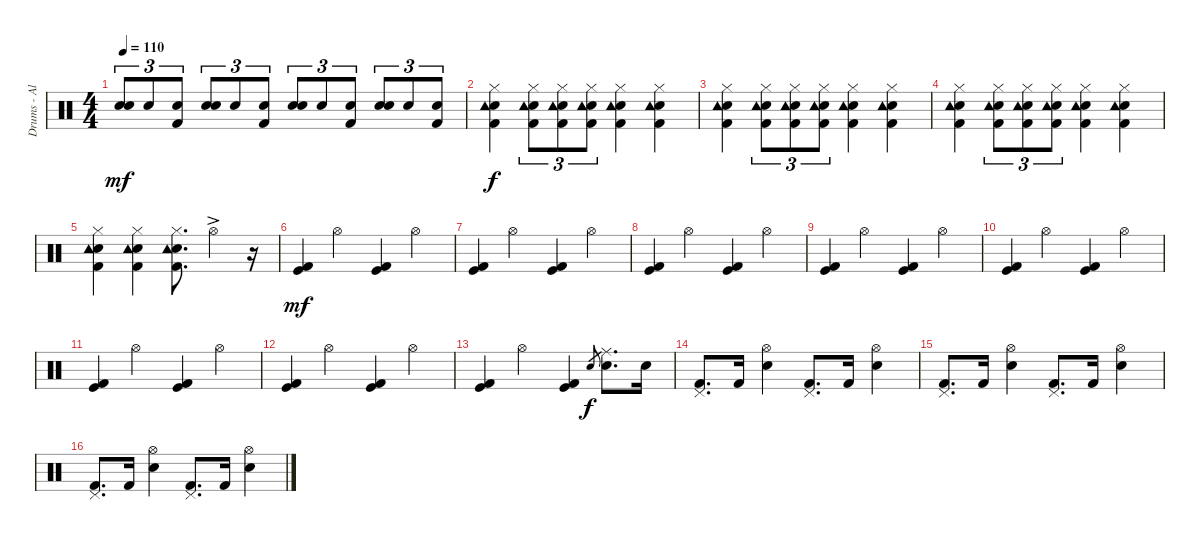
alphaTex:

\track ("Drums - Alan White" "Drums - Al") {instrument percussion}
\staff {score}
\articulation defaults
\ts (4 4)
\tempo 110
\clef neutral
\ks c
("Electric Snare (hit)" "Snare (hit) 2").8{tu (3 2) dy mf} "Snare (hit) 2".8{tu (3 2)} ("Snare (hit) 2" "Kick (hit) 2").8{tu (3 2)} ("Electric Snare (hit)" "Snare (hit) 2").8{tu (3 2)} "Snare (hit) 2".8{tu (3 2)} ("Snare (hit) 2" "Kick (hit) 2").8{tu (3 2)} ("Electric Snare (hit)" "Snare (hit) 2").8{tu (3 2)} "Snare (hit) 2".8{tu (3 2)} ("Snare (hit) 2" "Kick (hit) 2").8{tu (3 2)} ("Electric Snare (hit)" "Snare (hit) 2").8{tu (3 2)} "Snare (hit) 2".8{tu (3 2)} ("Snare (hit) 2" "Kick (hit) 2").8{tu (3 2)} |
("Snare (hit) 2" "Tambourine (hit)" "Hi-Hat (closed)" "Kick (hit) 2").4{dy f} ("Snare (hit) 2" "Tambourine (hit)" "Hi-Hat (closed)" "Kick (hit) 2").8{tu (3 2)} ("Snare (hit) 2" "Tambourine (hit)" "Hi-Hat (closed)" "Kick (hit) 2").8{tu (3 2)} ("Snare (hit) 2" "Tambourine (hit)" "Hi-Hat (closed)" "Kick (hit) 2").8{tu (3 2)} ("Snare (hit) 2" "Tambourine (hit)" "Hi-Hat (closed)" "Kick (hit) 2").4 ("Snare (hit) 2" "Tambourine (hit)" "Hi-Hat (closed)" "Kick (hit) 2").4 |
("Snare (hit) 2" "Tambourine (hit)" "Hi-Hat (closed)" "Kick (hit) 2").4 ("Snare (hit) 2" "Tambourine (hit)" "Hi-Hat (closed)" "Kick (hit) 2").8{tu (3 2)} ("Snare (hit) 2" "Tambourine (hit)" "Hi-Hat (closed)" "Kick (hit) 2").8{tu (3 2)} ("Snare (hit) 2" "Tambourine (hit)" "Hi-Hat (closed)" "Kick (hit) 2").8{tu (3 2)} ("Snare (hit) 2" "Tambourine (hit)" "Hi-Hat (closed)" "Kick (hit) 2").4 ("Snare (hit) 2" "Tambourine (hit)" "Hi-Hat (closed)" "Kick (hit) 2").4 |
("Snare (hit) 2" "Tambourine (hit)" "Hi-Hat (closed)" "Kick (hit) 2").4 ("Snare (hit) 2" "Tambourine (hit)" "Hi-Hat (closed)" "Kick (hit) 2").8{tu (3 2)} ("Snare (hit) 2" "Tambourine (hit)" "Hi-Hat (closed)" "Kick (hit) 2").8{tu (3 2)} ("Snare (hit) 2" "Tambourine (hit)" "Hi-Hat (closed)" "Kick (hit) 2").8{tu (3 2)} ("Snare (hit) 2" "Tambourine (hit)" "Hi-Hat (closed)" "Kick (hit) 2").4 ("Snare (hit) 2" "Tambourine (hit)" "Hi-Hat (closed)" "Kick (hit) 2").4 |
("Snare (hit) 2" "Tambourine (hit)" "Hi-Hat (closed)" "Kick (hit) 2").4 ("Snare (hit) 2" "Tambourine (hit)" "Hi-Hat (closed)" "Kick (hit) 2").4 ("Snare (hit) 2" "Tambourine (hit)" "Hi-Hat (closed)" "Kick (hit) 2").8{d} "Hi-Hat (open)"{ac}.4 r.16 |
("Kick (hit)" "Kick (hit) 2").4{dy mf} "Hi-Hat (open)".4 ("Kick (hit)" "Kick (hit) 2").4 "Hi-Hat (open)".4 |
("Kick (hit)" "Kick (hit) 2").4 "Hi-Hat (open)".4 ("Kick (hit)" "Kick (hit) 2").4 "Hi-Hat (open)".4 |
("Kick (hit)" "Kick (hit) 2").4 "Hi-Hat (open)".4 ("Kick (hit)" "Kick (hit) 2").4 "Hi-Hat (open)".4 |
("Kick (hit)" "Kick (hit) 2").4 "Hi-Hat (open)".4 ("Kick (hit)" "Kick (hit) 2").4 "Hi-Hat (open)".4 |
("Kick (hit)" "Kick (hit) 2").4 "Hi-Hat (open)".4 ("Kick (hit)" "Kick (hit) 2").4 "Hi-Hat (open)".4 |
("Kick (hit)" "Kick (hit) 2").4 "Hi-Hat (open)".4 ("Kick (hit)" "Kick (hit) 2").4 "Hi-Hat (open)".4 |
("Kick (hit)" "Kick (hit) 2").4 "Hi-Hat (open)".4 ("Kick (hit)" "Kick (hit) 2").4 "Hi-Hat (open)".4 |
("Kick (hit)" "Kick (hit) 2").4 "Hi-Hat (open)".4 ("Kick (hit)" "Kick (hit) 2").4 "Snare (hit) 2".8{gr dy f} ("Ride (middle)" "Snare (hit) 2").8{d} "Snare (hit) 2".16 |
("Pedal Hi-Hat (hit)" "Kick (hit) 2").8{d} "Kick (hit) 2".16 ("Hi-Hat (open)" "Snare (hit) 2").4 ("Pedal Hi-Hat (hit)" "Kick (hit) 2").8{d} "Kick (hit) 2".16 ("Hi-Hat (open)" "Snare (hit) 2").4 |
("Pedal Hi-Hat (hit)" "Kick (hit) 2").8{d} "Kick (hit) 2".16 ("Hi-Hat (open)" "Snare (hit) 2").4 ("Pedal Hi-Hat (hit)" "Kick (hit) 2").8{d} "Kick (hit) 2".16 ("Hi-Hat (open)" "Snare (hit) 2").4 |
("Pedal Hi-Hat (hit)" "Kick (hit) 2").8{d} "Kick (hit) 2".16 ("Hi-Hat (open)" "Snare (hit) 2").4 ("Pedal Hi-Hat (hit)" "Kick (hit) 2").8{d} "Kick (hit) 2".16 ("Hi-Hat (open)" "Snare (hit) 2").4
